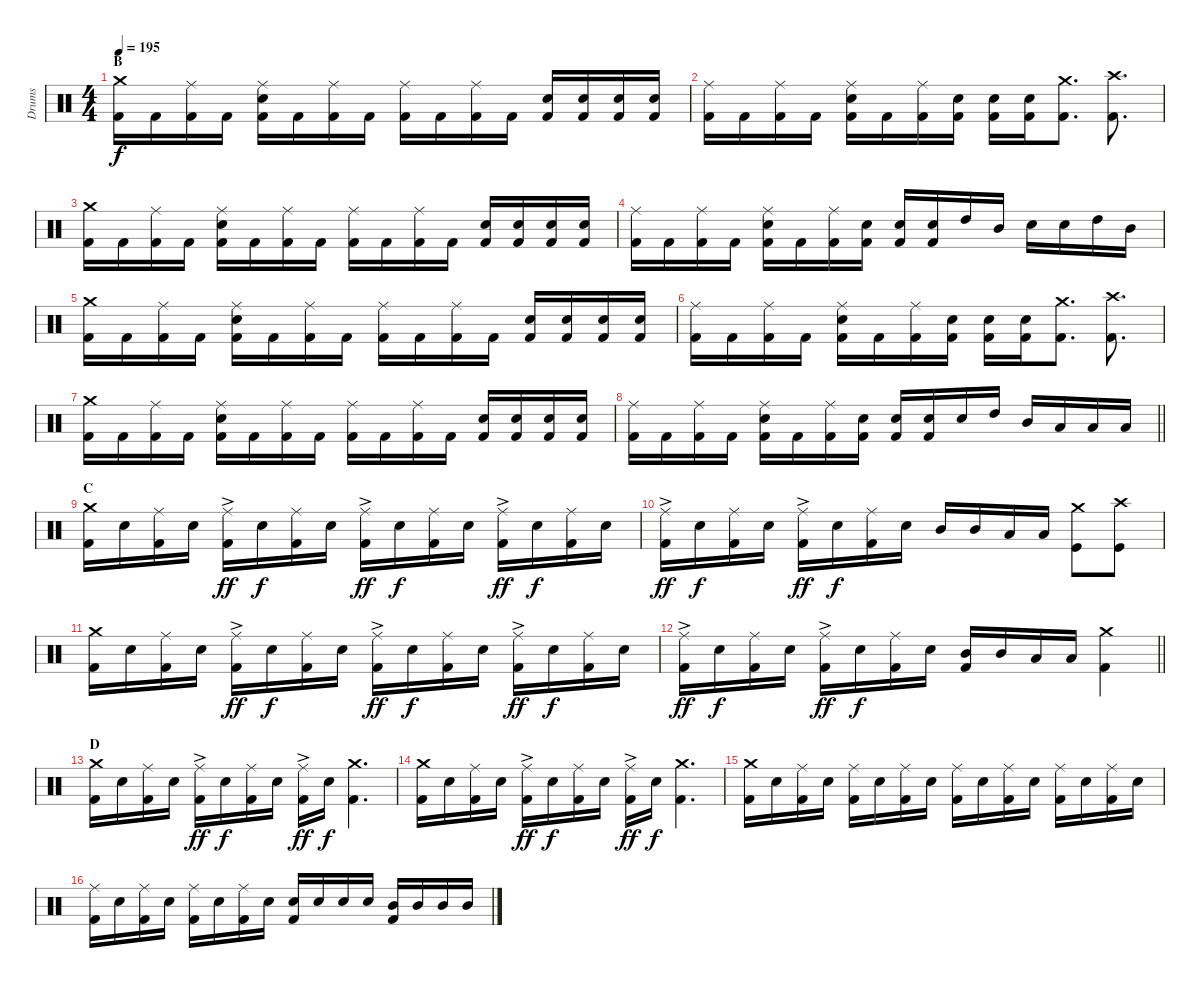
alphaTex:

\track ("Drums" "Drums") {instrument percussion}
\staff {score}
\articulation defaults
\ts (4 4)
\section ("" "B")
\tempo 195
\clef neutral
\ks c
("Crash medium (hit)" "Kick (hit) 2").16{dy f} "Kick (hit) 2".16 ("Ride (middle)" "Kick (hit) 2").16 "Kick (hit) 2".16 ("Ride (middle)" "Snare (hit) 2" "Kick (hit) 2").16 "Kick (hit) 2".16 ("Ride (middle)" "Kick (hit) 2").16 "Kick (hit) 2".16 ("Ride (middle)" "Kick (hit) 2").16 "Kick (hit) 2".16 ("Ride (middle)" "Kick (hit) 2").16 "Kick (hit) 2".16 ("Snare (hit) 2" "Kick (hit) 2").16 ("Snare (hit) 2" "Kick (hit) 2").16 ("Snare (hit) 2" "Kick (hit) 2").16 ("Snare (hit) 2" "Kick (hit) 2").16 |
("Ride (middle)" "Kick (hit) 2").16 "Kick (hit) 2".16 ("Ride (middle)" "Kick (hit) 2").16 "Kick (hit) 2".16 ("Ride (middle)" "Snare (hit) 2" "Kick (hit) 2").16 "Kick (hit) 2".16 ("Ride (middle)" "Kick (hit) 2").16 ("Snare (hit) 2" "Kick (hit) 2").16 ("Snare (hit) 2" "Kick (hit) 2").16 ("Snare (hit) 2" "Kick (hit) 2").16 ("Crash medium (hit)" "Kick (hit) 2").8{d} ("Crash high (hit)" "Kick (hit) 2").8{d} |
("Crash medium (hit)" "Kick (hit) 2").16 "Kick (hit) 2".16 ("Ride (middle)" "Kick (hit) 2").16 "Kick (hit) 2".16 ("Ride (middle)" "Snare (hit) 2" "Kick (hit) 2").16 "Kick (hit) 2".16 ("Ride (middle)" "Kick (hit) 2").16 "Kick (hit) 2".16 ("Ride (middle)" "Kick (hit) 2").16 "Kick (hit) 2".16 ("Ride (middle)" "Kick (hit) 2").16 "Kick (hit) 2".16 ("Snare (hit) 2" "Kick (hit) 2").16 ("Snare (hit) 2" "Kick (hit) 2").16 ("Snare (hit) 2" "Kick (hit) 2").16 ("Snare (hit) 2" "Kick (hit) 2").16 |
("Ride (middle)" "Kick (hit) 2").16 "Kick (hit) 2".16 ("Ride (middle)" "Kick (hit) 2").16 "Kick (hit) 2".16 ("Ride (middle)" "Snare (hit) 2" "Kick (hit) 2").16 "Kick (hit) 2".16 ("Ride (middle)" "Kick (hit) 2").16 ("Snare (hit) 2" "Kick (hit) 2").16 ("Snare (hit) 2" "Kick (hit) 2").16 ("Snare (hit) 2" "Kick (hit) 2").16 "High Tom (hit)".16 "Mid Tom (hit)".16 "Snare (hit) 2".16 "Snare (hit) 2".16 "High Tom (hit)".16 "Mid Tom (hit)".16 |
("Crash medium (hit)" "Kick (hit) 2").16 "Kick (hit) 2".16 ("Ride (middle)" "Kick (hit) 2").16 "Kick (hit) 2".16 ("Ride (middle)" "Snare (hit) 2" "Kick (hit) 2").16 "Kick (hit) 2".16 ("Ride (middle)" "Kick (hit) 2").16 "Kick (hit) 2".16 ("Ride (middle)" "Kick (hit) 2").16 "Kick (hit) 2".16 ("Ride (middle)" "Kick (hit) 2").16 "Kick (hit) 2".16 ("Snare (hit) 2" "Kick (hit) 2").16 ("Snare (hit) 2" "Kick (hit) 2").16 ("Snare (hit) 2" "Kick (hit) 2").16 ("Snare (hit) 2" "Kick (hit) 2").16 |
("Ride (middle)" "Kick (hit) 2").16 "Kick (hit) 2".16 ("Ride (middle)" "Kick (hit) 2").16 "Kick (hit) 2".16 ("Ride (middle)" "Snare (hit) 2" "Kick (hit) 2").16 "Kick (hit) 2".16 ("Ride (middle)" "Kick (hit) 2").16 ("Snare (hit) 2" "Kick (hit) 2").16 ("Snare (hit) 2" "Kick (hit) 2").16 ("Snare (hit) 2" "Kick (hit) 2").16 ("Crash medium (hit)" "Kick (hit) 2").8{d} ("Crash high (hit)" "Kick (hit) 2").8{d} |
("Crash medium (hit)" "Kick (hit) 2").16 "Kick (hit) 2".16 ("Ride (middle)" "Kick (hit) 2").16 "Kick (hit) 2".16 ("Ride (middle)" "Snare (hit) 2" "Kick (hit) 2").16 "Kick (hit) 2".16 ("Ride (middle)" "Kick (hit) 2").16 "Kick (hit) 2".16 ("Ride (middle)" "Kick (hit) 2").16 "Kick (hit) 2".16 ("Ride (middle)" "Kick (hit) 2").16 "Kick (hit) 2".16 ("Snare (hit) 2" "Kick (hit) 2").16 ("Snare (hit) 2" "Kick (hit) 2").16 ("Snare (hit) 2" "Kick (hit) 2").16 ("Snare (hit) 2" "Kick (hit) 2").16 |
\barLineRight lightlight
("Ride (middle)" "Kick (hit) 2").16 "Kick (hit) 2".16 ("Ride (middle)" "Kick (hit) 2").16 "Kick (hit) 2".16 ("Ride (middle)" "Snare (hit) 2" "Kick (hit) 2").16 "Kick (hit) 2".16 ("Ride (middle)" "Kick (hit) 2").16 ("Snare (hit) 2" "Kick (hit) 2").16 ("Snare (hit) 2" "Kick (hit) 2").16 ("Snare (hit) 2" "Kick (hit) 2").16 "Snare (hit) 2".16 "High Tom (hit)".16 "Mid Tom (hit)".16 "Low Tom (hit)".16 "Low Tom (hit)".16 "Low Tom (hit)".16 |
\section ("" "C")
("Crash medium (hit)" "Kick (hit) 2").16 "Snare (hit) 2".16 ("Ride (middle)" "Kick (hit) 2").16 "Snare (hit) 2".16 ("Ride (middle)"{ac} "Kick (hit) 2").16{dy ff} "Snare (hit) 2".16{dy f} ("Ride (middle)" "Kick (hit) 2").16 "Snare (hit) 2".16 ("Ride (middle)"{ac} "Kick (hit) 2").16{dy ff} "Snare (hit) 2".16{dy f} ("Ride (middle)" "Kick (hit) 2").16 "Snare (hit) 2".16 ("Ride (middle)"{ac} "Kick (hit) 2").16{dy ff} "Snare (hit) 2".16{dy f} ("Ride (middle)" "Kick (hit) 2").16 "Snare (hit) 2".16 |
("Ride (middle)"{ac} "Kick (hit) 2").16{dy ff} "Snare (hit) 2".16{dy f} ("Ride (middle)" "Kick (hit) 2").16 "Snare (hit) 2".16 ("Ride (middle)"{ac} "Kick (hit) 2").16{dy ff} "Snare (hit) 2".16{dy f} ("Ride (middle)" "Kick (hit) 2").16 "Snare (hit) 2".16 "Mid Tom (hit)".16 "Mid Tom (hit)".16 "Low Tom (hit)".16 "Low Tom (hit)".16 ("Crash medium (hit)" "Kick (hit)").8 ("Crash high (hit)" "Kick (hit)").8 |
("Crash medium (hit)" "Kick (hit) 2").16 "Snare (hit) 2".16 ("Ride (middle)" "Kick (hit) 2").16 "Snare (hit) 2".16 ("Ride (middle)"{ac} "Kick (hit) 2").16{dy ff} "Snare (hit) 2".16{dy f} ("Ride (middle)" "Kick (hit) 2").16 "Snare (hit) 2".16 ("Ride (middle)"{ac} "Kick (hit) 2").16{dy ff} "Snare (hit) 2".16{dy f} ("Ride (middle)" "Kick (hit) 2").16 "Snare (hit) 2".16 ("Ride (middle)"{ac} "Kick (hit) 2").16{dy ff} "Snare (hit) 2".16{dy f} ("Ride (middle)" "Kick (hit) 2").16 "Snare (hit) 2".16 |
\barLineRight lightlight
("Ride (middle)"{ac} "Kick (hit) 2").16{dy ff} "Snare (hit) 2".16{dy f} ("Ride (middle)" "Kick (hit) 2").16 "Snare (hit) 2".16 ("Ride (middle)"{ac} "Kick (hit) 2").16{dy ff} "Snare (hit) 2".16{dy f} ("Ride (middle)" "Kick (hit) 2").16 "Snare (hit) 2".16 ("Mid Tom (hit)" "Kick (hit) 2").16 "Mid Tom (hit)".16 "Low Tom (hit)".16 "Low Tom (hit)".16 ("Crash medium (hit)" "Kick (hit) 2").4 |
\section ("" "D")
("Crash medium (hit)" "Kick (hit) 2").16 "Snare (hit) 2".16 ("Ride (middle)" "Kick (hit) 2").16 "Snare (hit) 2".16 ("Ride (middle)"{ac} "Kick (hit) 2").16{dy ff} "Snare (hit) 2".16{dy f} ("Ride (middle)" "Kick (hit) 2").16 "Snare (hit) 2".16 ("Ride (middle)"{ac} "Kick (hit) 2").16{dy ff} "Snare (hit) 2".16{dy f} ("Crash medium (hit)" "Kick (hit) 2").4{d} |
("Crash medium (hit)" "Kick (hit) 2").16 "Snare (hit) 2".16 ("Ride (middle)" "Kick (hit) 2").16 "Snare (hit) 2".16 ("Ride (middle)"{ac} "Kick (hit) 2").16{dy ff} "Snare (hit) 2".16{dy f} ("Ride (middle)" "Kick (hit) 2").16 "Snare (hit) 2".16 ("Ride (middle)"{ac} "Kick (hit) 2").16{dy ff} "Snare (hit) 2".16{dy f} ("Crash medium (hit)" "Kick (hit) 2").4{d} |
("Crash medium (hit)" "Kick (hit) 2").16 "Snare (hit) 2".16 ("Ride (middle)" "Kick (hit) 2").16 "Snare (hit) 2".16 ("Ride (middle)" "Kick (hit) 2").16 "Snare (hit) 2".16 ("Ride (middle)" "Kick (hit) 2").16 "Snare (hit) 2".16 ("Ride (middle)" "Kick (hit) 2").16 "Snare (hit) 2".16 ("Ride (middle)" "Kick (hit) 2").16 "Snare (hit) 2".16 ("Ride (middle)" "Kick (hit) 2").16 "Snare (hit) 2".16 ("Ride (middle)" "Kick (hit) 2").16 "Snare (hit) 2".16 |
("Ride (middle)" "Kick (hit) 2").16 "Snare (hit) 2".16 ("Ride (middle)" "Kick (hit) 2").16 "Snare (hit) 2".16 ("Ride (middle)" "Kick (hit) 2").16 "Snare (hit) 2".16 ("Ride (middle)" "Kick (hit) 2").16 "Snare (hit) 2".16 ("Snare (hit) 2" "Kick (hit) 2").16 "Snare (hit) 2".16 "Snare (hit) 2".16 "Snare (hit) 2".16 ("Mid Tom (hit)" "Kick (hit) 2").16 "Mid Tom (hit)".16 "Mid Tom (hit)".16 "Mid Tom (hit)".16
